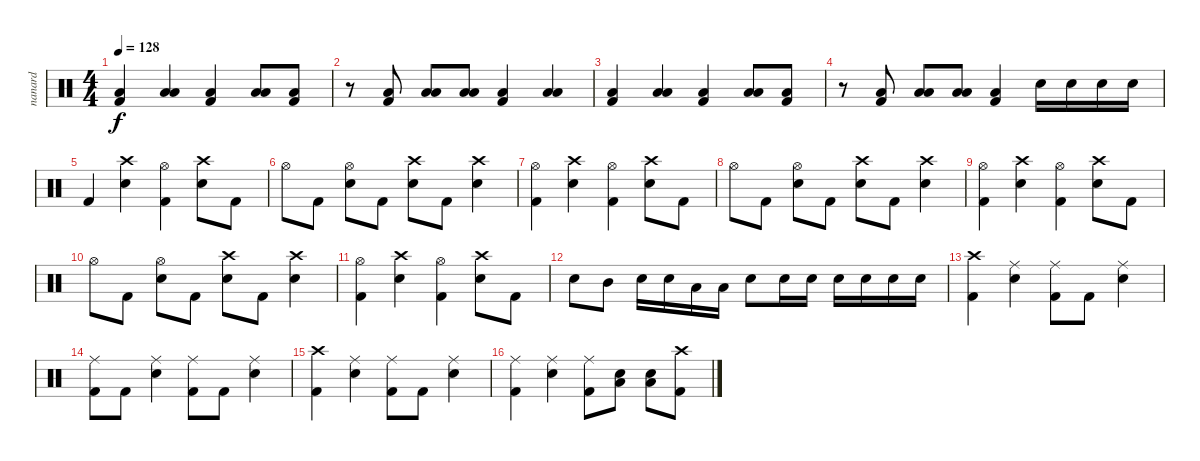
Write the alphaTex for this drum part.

\track ("nanard" "nanard") {instrument percussion}
\staff {score}
\articulation defaults
\ts (4 4)
\tempo 128
\clef neutral
\ks c
("Low Floor Tom (hit)" "Kick (hit) 2").4{dy f} ("Low Tom (hit)" "Low Floor Tom (hit)").4 ("Low Floor Tom (hit)" "Kick (hit) 2").4 ("Low Tom (hit)" "Low Floor Tom (hit)").8 ("Low Floor Tom (hit)" "Kick (hit) 2").8 |
r.8 ("Low Floor Tom (hit)" "Kick (hit) 2").8 ("Low Tom (hit)" "Low Floor Tom (hit)").8 ("Low Tom (hit)" "Low Floor Tom (hit)").8 ("Low Floor Tom (hit)" "Kick (hit) 2").4 ("Low Tom (hit)" "Low Floor Tom (hit)").4 |
("Low Floor Tom (hit)" "Kick (hit) 2").4 ("Low Tom (hit)" "Low Floor Tom (hit)").4 ("Low Floor Tom (hit)" "Kick (hit) 2").4 ("Low Tom (hit)" "Low Floor Tom (hit)").8 ("Low Floor Tom (hit)" "Kick (hit) 2").8 |
r.8 ("Low Floor Tom (hit)" "Kick (hit) 2").8 ("Low Tom (hit)" "Low Floor Tom (hit)").8 ("Low Tom (hit)" "Low Floor Tom (hit)").8 ("Low Floor Tom (hit)" "Kick (hit) 2").4 "Electric Snare (hit)".16 "Electric Snare (hit)".16 "Electric Snare (hit)".16 "Electric Snare (hit)".16 |
"Kick (hit) 2".4 ("Crash high (hit)" "Electric Snare (hit)").4 ("Hi-Hat (open)" "Kick (hit) 2").4 ("Crash high (hit)" "Electric Snare (hit)").8 "Kick (hit) 2".8 |
"Hi-Hat (open)".8 "Kick (hit) 2".8 ("Hi-Hat (open)" "Electric Snare (hit)").8 "Kick (hit) 2".8 ("Crash high (hit)" "Electric Snare (hit)").8 "Kick (hit) 2".8 ("Crash high (hit)" "Electric Snare (hit)").4 |
("Hi-Hat (open)" "Kick (hit) 2").4 ("Crash high (hit)" "Electric Snare (hit)").4 ("Hi-Hat (open)" "Kick (hit) 2").4 ("Crash high (hit)" "Electric Snare (hit)").8 "Kick (hit) 2".8 |
"Hi-Hat (open)".8 "Kick (hit) 2".8 ("Hi-Hat (open)" "Electric Snare (hit)").8 "Kick (hit) 2".8 ("Crash high (hit)" "Electric Snare (hit)").8 "Kick (hit) 2".8 ("Crash high (hit)" "Electric Snare (hit)").4 |
("Hi-Hat (open)" "Kick (hit) 2").4 ("Crash high (hit)" "Electric Snare (hit)").4 ("Hi-Hat (open)" "Kick (hit) 2").4 ("Crash high (hit)" "Electric Snare (hit)").8 "Kick (hit) 2".8 |
"Hi-Hat (open)".8 "Kick (hit) 2".8 ("Hi-Hat (open)" "Electric Snare (hit)").8 "Kick (hit) 2".8 ("Crash high (hit)" "Electric Snare (hit)").8 "Kick (hit) 2".8 ("Crash high (hit)" "Electric Snare (hit)").4 |
("Hi-Hat (open)" "Kick (hit) 2").4 ("Crash high (hit)" "Electric Snare (hit)").4 ("Hi-Hat (open)" "Kick (hit) 2").4 ("Crash high (hit)" "Electric Snare (hit)").8 "Kick (hit) 2".8 |
"Electric Snare (hit)".8 "Mid Tom (hit)".8 "Electric Snare (hit)".16 "Electric Snare (hit)".16 "Low Tom (hit)".16 "Low Tom (hit)".16 "Electric Snare (hit)".8 "Electric Snare (hit)".16 "Electric Snare (hit)".16 "Electric Snare (hit)".16 "Electric Snare (hit)".16 "Electric Snare (hit)".16 "Electric Snare (hit)".16 |
("Crash high (hit)" "Kick (hit) 2").4 ("Ride (middle)" "Electric Snare (hit)").4 ("Ride (middle)" "Kick (hit) 2").8 "Kick (hit) 2".8 ("Ride (middle)" "Electric Snare (hit)").4 |
("Ride (middle)" "Kick (hit) 2").8 "Kick (hit) 2".8 ("Ride (middle)" "Electric Snare (hit)").4 ("Ride (middle)" "Kick (hit) 2").8 "Kick (hit) 2".8 ("Ride (middle)" "Electric Snare (hit)").4 |
("Crash high (hit)" "Kick (hit) 2").4 ("Ride (middle)" "Electric Snare (hit)").4 ("Ride (middle)" "Kick (hit) 2").8 "Kick (hit) 2".8 ("Ride (middle)" "Electric Snare (hit)").4 |
("Ride (middle)" "Kick (hit) 2").4 ("Ride (middle)" "Electric Snare (hit)").4 ("Ride (middle)" "Kick (hit) 2").8 ("Electric Snare (hit)" "Low Floor Tom (hit)").8 ("Electric Snare (hit)" "Low Floor Tom (hit)").8 ("Crash high (hit)" "Kick (hit) 2").8
